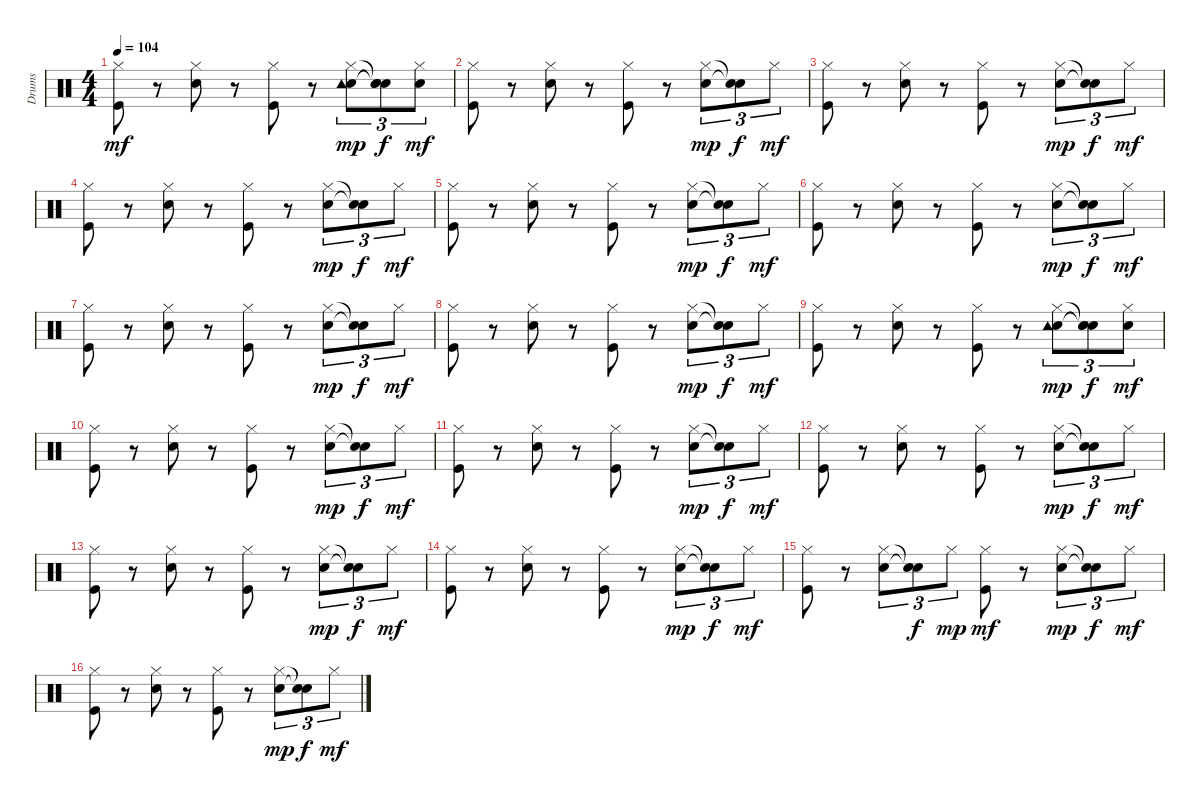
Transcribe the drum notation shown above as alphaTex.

\track ("Drums   " "Drums   ") {instrument percussion}
\staff {score}
\articulation defaults
\ts (4 4)
\tempo 104
\clef neutral
\ks c
("Kick (hit)" "Hi-Hat (closed)").8{dy mf} r.8 ("Snare (hit) 2" "Hi-Hat (closed)").8 r.8 ("Kick (hit)" "Hi-Hat (closed)").8 r.8 ("Snare (hit) 2" "Hi-Hat (closed)" "Tambourine (hit)").8{tu (3 2) dy mp} ("Snare (hit)"{t} "Snare (hit)"{t} "Snare (hit)"{t}).8{tu (3 2) dy f} ("Snare (hit) 2" "Hi-Hat (closed)").8{tu (3 2) dy mf} |
("Kick (hit)" "Hi-Hat (closed)").8 r.8 ("Snare (hit) 2" "Hi-Hat (closed)").8 r.8 ("Kick (hit)" "Hi-Hat (closed)").8 r.8 ("Snare (hit) 2" "Hi-Hat (closed)").8{tu (3 2) dy mp} ("Snare (hit)"{t} "Snare (hit)"{t}).8{tu (3 2) dy f} "Hi-Hat (closed)".8{tu (3 2) dy mf} |
("Kick (hit)" "Hi-Hat (closed)").8 r.8 ("Snare (hit) 2" "Hi-Hat (closed)").8 r.8 ("Kick (hit)" "Hi-Hat (closed)").8 r.8 ("Snare (hit) 2" "Hi-Hat (closed)").8{tu (3 2) dy mp} ("Snare (hit)"{t} "Snare (hit)"{t}).8{tu (3 2) dy f} "Hi-Hat (closed)".8{tu (3 2) dy mf} |
("Kick (hit)" "Hi-Hat (closed)").8 r.8 ("Snare (hit) 2" "Hi-Hat (closed)").8 r.8 ("Kick (hit)" "Hi-Hat (closed)").8 r.8 ("Snare (hit) 2" "Hi-Hat (closed)").8{tu (3 2) dy mp} ("Snare (hit)"{t} "Snare (hit)"{t}).8{tu (3 2) dy f} "Hi-Hat (closed)".8{tu (3 2) dy mf} |
("Kick (hit)" "Hi-Hat (closed)").8 r.8 ("Snare (hit) 2" "Hi-Hat (closed)").8 r.8 ("Kick (hit)" "Hi-Hat (closed)").8 r.8 ("Snare (hit) 2" "Hi-Hat (closed)").8{tu (3 2) dy mp} ("Snare (hit)"{t} "Snare (hit)"{t}).8{tu (3 2) dy f} "Hi-Hat (closed)".8{tu (3 2) dy mf} |
("Kick (hit)" "Hi-Hat (closed)").8 r.8 ("Snare (hit) 2" "Hi-Hat (closed)").8 r.8 ("Kick (hit)" "Hi-Hat (closed)").8 r.8 ("Snare (hit) 2" "Hi-Hat (closed)").8{tu (3 2) dy mp} ("Snare (hit)"{t} "Snare (hit)"{t}).8{tu (3 2) dy f} "Hi-Hat (closed)".8{tu (3 2) dy mf} |
("Kick (hit)" "Hi-Hat (closed)").8 r.8 ("Snare (hit) 2" "Hi-Hat (closed)").8 r.8 ("Kick (hit)" "Hi-Hat (closed)").8 r.8 ("Snare (hit) 2" "Hi-Hat (closed)").8{tu (3 2) dy mp} ("Snare (hit)"{t} "Snare (hit)"{t}).8{tu (3 2) dy f} "Hi-Hat (closed)".8{tu (3 2) dy mf} |
("Kick (hit)" "Hi-Hat (closed)").8 r.8 ("Snare (hit) 2" "Hi-Hat (closed)").8 r.8 ("Kick (hit)" "Hi-Hat (closed)").8 r.8 ("Snare (hit) 2" "Hi-Hat (closed)").8{tu (3 2) dy mp} ("Snare (hit)"{t} "Snare (hit)"{t}).8{tu (3 2) dy f} "Hi-Hat (closed)".8{tu (3 2) dy mf} |
("Kick (hit)" "Hi-Hat (closed)").8 r.8 ("Snare (hit) 2" "Hi-Hat (closed)").8 r.8 ("Kick (hit)" "Hi-Hat (closed)").8 r.8 ("Snare (hit) 2" "Hi-Hat (closed)" "Tambourine (hit)").8{tu (3 2) dy mp} ("Snare (hit)"{t} "Snare (hit)"{t} "Snare (hit)"{t}).8{tu (3 2) dy f} ("Snare (hit) 2" "Hi-Hat (closed)").8{tu (3 2) dy mf} |
("Kick (hit)" "Hi-Hat (closed)").8 r.8 ("Snare (hit) 2" "Hi-Hat (closed)").8 r.8 ("Kick (hit)" "Hi-Hat (closed)").8 r.8 ("Snare (hit) 2" "Hi-Hat (closed)").8{tu (3 2) dy mp} ("Snare (hit)"{t} "Snare (hit)"{t}).8{tu (3 2) dy f} "Hi-Hat (closed)".8{tu (3 2) dy mf} |
("Kick (hit)" "Hi-Hat (closed)").8 r.8 ("Snare (hit) 2" "Hi-Hat (closed)").8 r.8 ("Kick (hit)" "Hi-Hat (closed)").8 r.8 ("Snare (hit) 2" "Hi-Hat (closed)").8{tu (3 2) dy mp} ("Snare (hit)"{t} "Snare (hit)"{t}).8{tu (3 2) dy f} "Hi-Hat (closed)".8{tu (3 2) dy mf} |
("Kick (hit)" "Hi-Hat (closed)").8 r.8 ("Snare (hit) 2" "Hi-Hat (closed)").8 r.8 ("Kick (hit)" "Hi-Hat (closed)").8 r.8 ("Snare (hit) 2" "Hi-Hat (closed)").8{tu (3 2) dy mp} ("Snare (hit)"{t} "Snare (hit)"{t}).8{tu (3 2) dy f} "Hi-Hat (closed)".8{tu (3 2) dy mf} |
("Kick (hit)" "Hi-Hat (closed)").8 r.8 ("Snare (hit) 2" "Hi-Hat (closed)").8 r.8 ("Kick (hit)" "Hi-Hat (closed)").8 r.8 ("Snare (hit) 2" "Hi-Hat (closed)").8{tu (3 2) dy mp} ("Snare (hit)"{t} "Snare (hit)"{t}).8{tu (3 2) dy f} "Hi-Hat (closed)".8{tu (3 2) dy mf} |
("Kick (hit)" "Hi-Hat (closed)").8 r.8 ("Snare (hit) 2" "Hi-Hat (closed)").8 r.8 ("Kick (hit)" "Hi-Hat (closed)").8 r.8 ("Snare (hit) 2" "Hi-Hat (closed)").8{tu (3 2) dy mp} ("Snare (hit)"{t} "Snare (hit)"{t}).8{tu (3 2) dy f} "Hi-Hat (closed)".8{tu (3 2) dy mf} |
("Kick (hit)" "Hi-Hat (closed)").8 r.8 ("Snare (hit) 2" "Hi-Hat (closed)").8{tu (3 2)} ("Snare (hit)"{t} "Snare (hit)"{t}).8{tu (3 2) dy f} "Hi-Hat (closed)".8{tu (3 2) dy mp} ("Kick (hit)" "Hi-Hat (closed)").8{dy mf} r.8 ("Snare (hit) 2" "Hi-Hat (closed)").8{tu (3 2) dy mp} ("Snare (hit)"{t} "Snare (hit)"{t}).8{tu (3 2) dy f} "Hi-Hat (closed)".8{tu (3 2) dy mf} |
("Kick (hit)" "Hi-Hat (closed)").8 r.8 ("Snare (hit) 2" "Hi-Hat (closed)").8 r.8 ("Kick (hit)" "Hi-Hat (closed)").8 r.8 ("Snare (hit) 2" "Hi-Hat (closed)").8{tu (3 2) dy mp} ("Snare (hit)"{t} "Snare (hit)"{t}).8{tu (3 2) dy f} "Hi-Hat (closed)".8{tu (3 2) dy mf}
